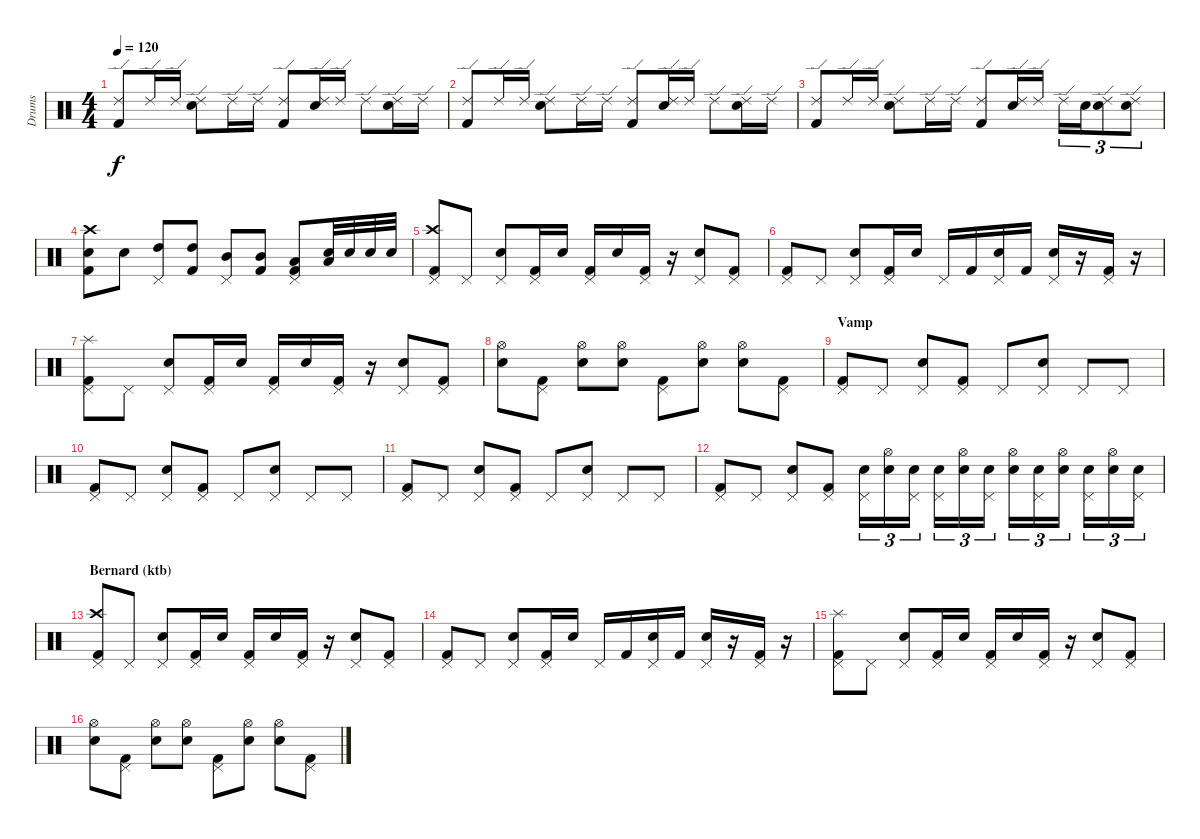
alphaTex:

\track ("Drums" "Drums") {instrument percussion}
\staff {score}
\articulation defaults
\ts (4 4)
\tempo 120
\clef neutral
\ks c
("Ride (edge) 2" "Kick (hit) 2").8{dy f} "Ride (edge) 2".16 "Ride (edge) 2".16 ("Ride (edge) 2" "Electric Snare (hit)").8 "Ride (edge) 2".16 "Ride (edge) 2".16 ("Ride (edge) 2" "Kick (hit) 2").8 ("Ride (edge) 2" "Electric Snare (hit)").16 "Ride (edge) 2".16 "Ride (edge) 2".8 ("Ride (edge) 2" "Electric Snare (hit)").16 "Ride (edge) 2".16 |
("Ride (edge) 2" "Kick (hit) 2").8 "Ride (edge) 2".16 "Ride (edge) 2".16 ("Ride (edge) 2" "Electric Snare (hit)").8 "Ride (edge) 2".16 "Ride (edge) 2".16 ("Ride (edge) 2" "Kick (hit) 2").8 ("Ride (edge) 2" "Electric Snare (hit)").16 "Ride (edge) 2".16 "Ride (edge) 2".8 ("Ride (edge) 2" "Electric Snare (hit)").16 "Ride (edge) 2".16 |
("Ride (edge) 2" "Kick (hit) 2").8 "Ride (edge) 2".16 "Ride (edge) 2".16 ("Ride (edge) 2" "Electric Snare (hit)").8 "Ride (edge) 2".16 "Ride (edge) 2".16 ("Ride (edge) 2" "Kick (hit) 2").8 ("Ride (edge) 2" "Electric Snare (hit)").16 "Ride (edge) 2".16 "Ride (edge) 2".16{tu (3 2)} "Electric Snare (hit)".16{tu (3 2)} ("Ride (edge) 2" "Electric Snare (hit)").8{tu (3 2)} ("Ride (edge) 2" "Electric Snare (hit)").8{tu (3 2)} |
("Crash high (hit)" "Electric Snare (hit)" "Kick (hit) 2").8 "Electric Snare (hit)".8 ("Pedal Hi-Hat (hit)" "High Tom (hit)").8 ("High Tom (hit)" "Kick (hit) 2").8 ("Pedal Hi-Hat (hit)" "Mid Tom (hit)").8 ("Mid Tom (hit)" "Kick (hit) 2").8 ("Pedal Hi-Hat (hit)" "Low Tom (hit)" "Kick (hit) 2").8 ("Electric Snare (hit)" "Low Tom (hit)").32 "Electric Snare (hit)".32 "Electric Snare (hit)".32 "Electric Snare (hit)".32 |
("Crash high (hit)" "Pedal Hi-Hat (hit)" "Kick (hit) 2").8 "Pedal Hi-Hat (hit)".8 ("Pedal Hi-Hat (hit)" "Electric Snare (hit)").8 ("Pedal Hi-Hat (hit)" "Kick (hit) 2").16 "Electric Snare (hit)".16 ("Pedal Hi-Hat (hit)" "Kick (hit) 2").16 "Electric Snare (hit)".16 ("Pedal Hi-Hat (hit)" "Kick (hit) 2").16 r.16 ("Pedal Hi-Hat (hit)" "Electric Snare (hit)").8 ("Pedal Hi-Hat (hit)" "Kick (hit) 2").8 |
("Pedal Hi-Hat (hit)" "Kick (hit) 2").8 "Pedal Hi-Hat (hit)".8 ("Pedal Hi-Hat (hit)" "Electric Snare (hit)").8 ("Pedal Hi-Hat (hit)" "Kick (hit) 2").16 "Electric Snare (hit)".16 "Pedal Hi-Hat (hit)".16 "Kick (hit) 2".16 ("Pedal Hi-Hat (hit)" "Electric Snare (hit)").16 "Kick (hit) 2".16 ("Pedal Hi-Hat (hit)" "Electric Snare (hit)").16 r.16 ("Pedal Hi-Hat (hit)" "Kick (hit) 2").16 r.16 |
("Splash (hit)" "Pedal Hi-Hat (hit)" "Kick (hit) 2").8 "Pedal Hi-Hat (hit)".8 ("Pedal Hi-Hat (hit)" "Electric Snare (hit)").8 ("Pedal Hi-Hat (hit)" "Kick (hit) 2").16 "Electric Snare (hit)".16 ("Pedal Hi-Hat (hit)" "Kick (hit) 2").16 "Electric Snare (hit)".16 ("Pedal Hi-Hat (hit)" "Kick (hit) 2").16 r.16 ("Pedal Hi-Hat (hit)" "Electric Snare (hit)").8 ("Pedal Hi-Hat (hit)" "Kick (hit) 2").8 |
("Hi-Hat (open)" "Electric Snare (hit)").8 ("Pedal Hi-Hat (hit)" "Kick (hit) 2").8 ("Hi-Hat (open)" "Electric Snare (hit)").8 ("Hi-Hat (open)" "Electric Snare (hit)").8 ("Pedal Hi-Hat (hit)" "Kick (hit) 2").8 ("Hi-Hat (open)" "Electric Snare (hit)").8 ("Hi-Hat (open)" "Electric Snare (hit)").8 ("Pedal Hi-Hat (hit)" "Kick (hit) 2").8 |
\section ("" "Vamp")
("Pedal Hi-Hat (hit)" "Kick (hit) 2").8 "Pedal Hi-Hat (hit)".8 ("Pedal Hi-Hat (hit)" "Electric Snare (hit)").8 ("Pedal Hi-Hat (hit)" "Kick (hit) 2").8 "Pedal Hi-Hat (hit)".8 ("Pedal Hi-Hat (hit)" "Electric Snare (hit)").8 "Pedal Hi-Hat (hit)".8 "Pedal Hi-Hat (hit)".8 |
("Pedal Hi-Hat (hit)" "Kick (hit) 2").8 "Pedal Hi-Hat (hit)".8 ("Pedal Hi-Hat (hit)" "Electric Snare (hit)").8 ("Pedal Hi-Hat (hit)" "Kick (hit) 2").8 "Pedal Hi-Hat (hit)".8 ("Pedal Hi-Hat (hit)" "Electric Snare (hit)").8 "Pedal Hi-Hat (hit)".8 "Pedal Hi-Hat (hit)".8 |
("Pedal Hi-Hat (hit)" "Kick (hit) 2").8 "Pedal Hi-Hat (hit)".8 ("Pedal Hi-Hat (hit)" "Electric Snare (hit)").8 ("Pedal Hi-Hat (hit)" "Kick (hit) 2").8 "Pedal Hi-Hat (hit)".8 ("Pedal Hi-Hat (hit)" "Electric Snare (hit)").8 "Pedal Hi-Hat (hit)".8 "Pedal Hi-Hat (hit)".8 |
("Pedal Hi-Hat (hit)" "Kick (hit) 2").8 "Pedal Hi-Hat (hit)".8 ("Pedal Hi-Hat (hit)" "Electric Snare (hit)").8 ("Pedal Hi-Hat (hit)" "Kick (hit) 2").8 ("Pedal Hi-Hat (hit)" "Electric Snare (hit)").16{tu (3 2)} ("Hi-Hat (open)" "Electric Snare (hit)").16{tu (3 2)} ("Pedal Hi-Hat (hit)" "Electric Snare (hit)").16{tu (3 2)} ("Pedal Hi-Hat (hit)" "Electric Snare (hit)").16{tu (3 2)} ("Hi-Hat (open)" "Electric Snare (hit)").16{tu (3 2)} ("Pedal Hi-Hat (hit)" "Electric Snare (hit)").16{tu (3 2)} ("Hi-Hat (open)" "Electric Snare (hit)").16{tu (3 2)} ("Pedal Hi-Hat (hit)" "Electric Snare (hit)").16{tu (3 2)} ("Hi-Hat (open)" "Electric Snare (hit)").16{tu (3 2)} ("Pedal Hi-Hat (hit)" "Electric Snare (hit)").16{tu (3 2)} ("Hi-Hat (open)" "Electric Snare (hit)").16{tu (3 2)} ("Pedal Hi-Hat (hit)" "Electric Snare (hit)").16{tu (3 2)} |
\section ("" "Bernard (ktb)")
("Crash high (hit)" "Pedal Hi-Hat (hit)" "Kick (hit) 2").8 "Pedal Hi-Hat (hit)".8 ("Pedal Hi-Hat (hit)" "Electric Snare (hit)").8 ("Pedal Hi-Hat (hit)" "Kick (hit) 2").16 "Electric Snare (hit)".16 ("Pedal Hi-Hat (hit)" "Kick (hit) 2").16 "Electric Snare (hit)".16 ("Pedal Hi-Hat (hit)" "Kick (hit) 2").16 r.16 ("Pedal Hi-Hat (hit)" "Electric Snare (hit)").8 ("Pedal Hi-Hat (hit)" "Kick (hit) 2").8 |
("Pedal Hi-Hat (hit)" "Kick (hit) 2").8 "Pedal Hi-Hat (hit)".8 ("Pedal Hi-Hat (hit)" "Electric Snare (hit)").8 ("Pedal Hi-Hat (hit)" "Kick (hit) 2").16 "Electric Snare (hit)".16 "Pedal Hi-Hat (hit)".16 "Kick (hit) 2".16 ("Pedal Hi-Hat (hit)" "Electric Snare (hit)").16 "Kick (hit) 2".16 ("Pedal Hi-Hat (hit)" "Electric Snare (hit)").16 r.16 ("Pedal Hi-Hat (hit)" "Kick (hit) 2").16 r.16 |
("Splash (hit)" "Pedal Hi-Hat (hit)" "Kick (hit) 2").8 "Pedal Hi-Hat (hit)".8 ("Pedal Hi-Hat (hit)" "Electric Snare (hit)").8 ("Pedal Hi-Hat (hit)" "Kick (hit) 2").16 "Electric Snare (hit)".16 ("Pedal Hi-Hat (hit)" "Kick (hit) 2").16 "Electric Snare (hit)".16 ("Pedal Hi-Hat (hit)" "Kick (hit) 2").16 r.16 ("Pedal Hi-Hat (hit)" "Electric Snare (hit)").8 ("Pedal Hi-Hat (hit)" "Kick (hit) 2").8 |
("Hi-Hat (open)" "Electric Snare (hit)").8 ("Pedal Hi-Hat (hit)" "Kick (hit) 2").8 ("Hi-Hat (open)" "Electric Snare (hit)").8 ("Hi-Hat (open)" "Electric Snare (hit)").8 ("Pedal Hi-Hat (hit)" "Kick (hit) 2").8 ("Hi-Hat (open)" "Electric Snare (hit)").8 ("Hi-Hat (open)" "Electric Snare (hit)").8 ("Pedal Hi-Hat (hit)" "Kick (hit) 2").8
